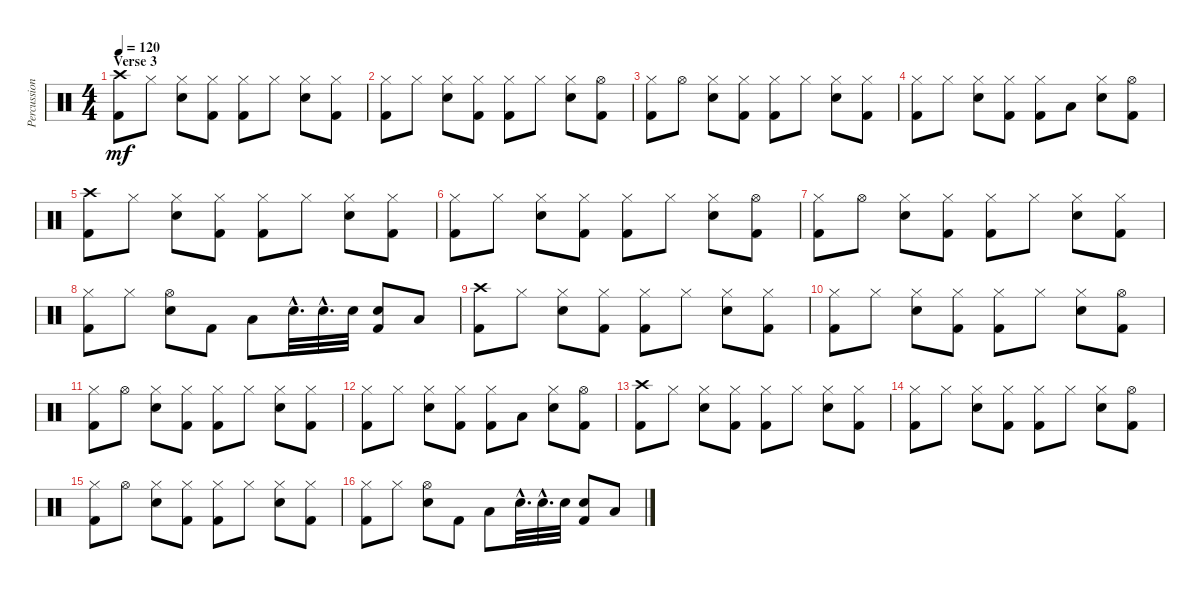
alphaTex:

\track ("Percussion" "Percussion") {instrument percussion}
\staff {score}
\articulation defaults
\ts (4 4)
\section ("" "Verse 3")
\tempo 120
\clef neutral
\ks c
("Kick (hit) 2" "Crash high (hit)").8{dy mf} "Hi-Hat (closed)".8 ("Hi-Hat (closed)" "Snare (hit) 2").8 ("Hi-Hat (closed)" "Kick (hit) 2").8 ("Kick (hit) 2" "Hi-Hat (closed)").8 "Hi-Hat (closed)".8 ("Snare (hit) 2" "Hi-Hat (closed)").8 ("Kick (hit) 2" "Hi-Hat (closed)").8 |
("Kick (hit) 2" "Hi-Hat (closed)").8 "Hi-Hat (closed)".8 ("Hi-Hat (closed)" "Snare (hit) 2").8 ("Hi-Hat (closed)" "Kick (hit) 2").8 ("Kick (hit) 2" "Hi-Hat (closed)").8 "Hi-Hat (closed)".8 ("Snare (hit) 2" "Hi-Hat (closed)").8 ("Hi-Hat (open)" "Kick (hit) 2").8 |
("Kick (hit) 2" "Hi-Hat (closed)").8 "Hi-Hat (open)".8 ("Hi-Hat (closed)" "Snare (hit) 2").8 ("Hi-Hat (closed)" "Kick (hit) 2").8 ("Kick (hit) 2" "Hi-Hat (closed)").8 "Hi-Hat (closed)".8 ("Snare (hit) 2" "Hi-Hat (closed)").8 ("Kick (hit) 2" "Hi-Hat (closed)").8 |
("Kick (hit) 2" "Hi-Hat (closed)").8 "Hi-Hat (closed)".8 ("Hi-Hat (closed)" "Snare (hit) 2").8 ("Hi-Hat (closed)" "Kick (hit) 2").8 ("Kick (hit) 2" "Hi-Hat (closed)").8 "Low Floor Tom (hit)".8 ("Snare (hit) 2" "Hi-Hat (closed)").8 ("Hi-Hat (open)" "Kick (hit) 2").8 |
("Kick (hit) 2" "Crash high (hit)").8 "Hi-Hat (closed)".8 ("Hi-Hat (closed)" "Snare (hit) 2").8 ("Hi-Hat (closed)" "Kick (hit) 2").8 ("Kick (hit) 2" "Hi-Hat (closed)").8 "Hi-Hat (closed)".8 ("Snare (hit) 2" "Hi-Hat (closed)").8 ("Kick (hit) 2" "Hi-Hat (closed)").8 |
("Kick (hit) 2" "Hi-Hat (closed)").8 "Hi-Hat (closed)".8 ("Hi-Hat (closed)" "Snare (hit) 2").8 ("Hi-Hat (closed)" "Kick (hit) 2").8 ("Kick (hit) 2" "Hi-Hat (closed)").8 "Hi-Hat (closed)".8 ("Snare (hit) 2" "Hi-Hat (closed)").8 ("Hi-Hat (open)" "Kick (hit) 2").8 |
("Kick (hit) 2" "Hi-Hat (closed)").8 "Hi-Hat (open)".8 ("Hi-Hat (closed)" "Snare (hit) 2").8 ("Hi-Hat (closed)" "Kick (hit) 2").8 ("Kick (hit) 2" "Hi-Hat (closed)").8 "Hi-Hat (closed)".8 ("Snare (hit) 2" "Hi-Hat (closed)").8 ("Kick (hit) 2" "Hi-Hat (closed)").8 |
("Kick (hit) 2" "Hi-Hat (closed)").8 "Hi-Hat (closed)".8 ("Hi-Hat (open)" "Snare (hit) 2").8 "Kick (hit) 2".8 "Low Tom (hit)".8 "Snare (hit) 2"{hac}.32{d} "Snare (hit) 2"{hac}.32{d} "Snare (hit) 2".32 ("Snare (hit) 2" "Kick (hit) 2").8 "Low Floor Tom (hit)".8 |
("Kick (hit) 2" "Crash high (hit)").8 "Hi-Hat (closed)".8 ("Hi-Hat (closed)" "Snare (hit) 2").8 ("Hi-Hat (closed)" "Kick (hit) 2").8 ("Kick (hit) 2" "Hi-Hat (closed)").8 "Hi-Hat (closed)".8 ("Snare (hit) 2" "Hi-Hat (closed)").8 ("Kick (hit) 2" "Hi-Hat (closed)").8 |
("Kick (hit) 2" "Hi-Hat (closed)").8 "Hi-Hat (closed)".8 ("Hi-Hat (closed)" "Snare (hit) 2").8 ("Hi-Hat (closed)" "Kick (hit) 2").8 ("Kick (hit) 2" "Hi-Hat (closed)").8 "Hi-Hat (closed)".8 ("Snare (hit) 2" "Hi-Hat (closed)").8 ("Hi-Hat (open)" "Kick (hit) 2").8 |
("Kick (hit) 2" "Hi-Hat (closed)").8 "Hi-Hat (open)".8 ("Hi-Hat (closed)" "Snare (hit) 2").8 ("Hi-Hat (closed)" "Kick (hit) 2").8 ("Kick (hit) 2" "Hi-Hat (closed)").8 "Hi-Hat (closed)".8 ("Snare (hit) 2" "Hi-Hat (closed)").8 ("Kick (hit) 2" "Hi-Hat (closed)").8 |
("Kick (hit) 2" "Hi-Hat (closed)").8 "Hi-Hat (closed)".8 ("Hi-Hat (closed)" "Snare (hit) 2").8 ("Hi-Hat (closed)" "Kick (hit) 2").8 ("Kick (hit) 2" "Hi-Hat (closed)").8 "Low Floor Tom (hit)".8 ("Snare (hit) 2" "Hi-Hat (closed)").8 ("Hi-Hat (open)" "Kick (hit) 2").8 |
("Kick (hit) 2" "Crash high (hit)").8 "Hi-Hat (closed)".8 ("Hi-Hat (closed)" "Snare (hit) 2").8 ("Hi-Hat (closed)" "Kick (hit) 2").8 ("Kick (hit) 2" "Hi-Hat (closed)").8 "Hi-Hat (closed)".8 ("Snare (hit) 2" "Hi-Hat (closed)").8 ("Kick (hit) 2" "Hi-Hat (closed)").8 |
("Kick (hit) 2" "Hi-Hat (closed)").8 "Hi-Hat (closed)".8 ("Hi-Hat (closed)" "Snare (hit) 2").8 ("Hi-Hat (closed)" "Kick (hit) 2").8 ("Kick (hit) 2" "Hi-Hat (closed)").8 "Hi-Hat (closed)".8 ("Snare (hit) 2" "Hi-Hat (closed)").8 ("Hi-Hat (open)" "Kick (hit) 2").8 |
("Kick (hit) 2" "Hi-Hat (closed)").8 "Hi-Hat (open)".8 ("Hi-Hat (closed)" "Snare (hit) 2").8 ("Hi-Hat (closed)" "Kick (hit) 2").8 ("Kick (hit) 2" "Hi-Hat (closed)").8 "Hi-Hat (closed)".8 ("Snare (hit) 2" "Hi-Hat (closed)").8 ("Kick (hit) 2" "Hi-Hat (closed)").8 |
("Kick (hit) 2" "Hi-Hat (closed)").8 "Hi-Hat (closed)".8 ("Hi-Hat (open)" "Snare (hit) 2").8 "Kick (hit) 2".8 "Low Tom (hit)".8 "Snare (hit) 2"{hac}.32{d} "Snare (hit) 2"{hac}.32{d} "Snare (hit) 2".32 ("Snare (hit) 2" "Kick (hit) 2").8 "Low Floor Tom (hit)".8
